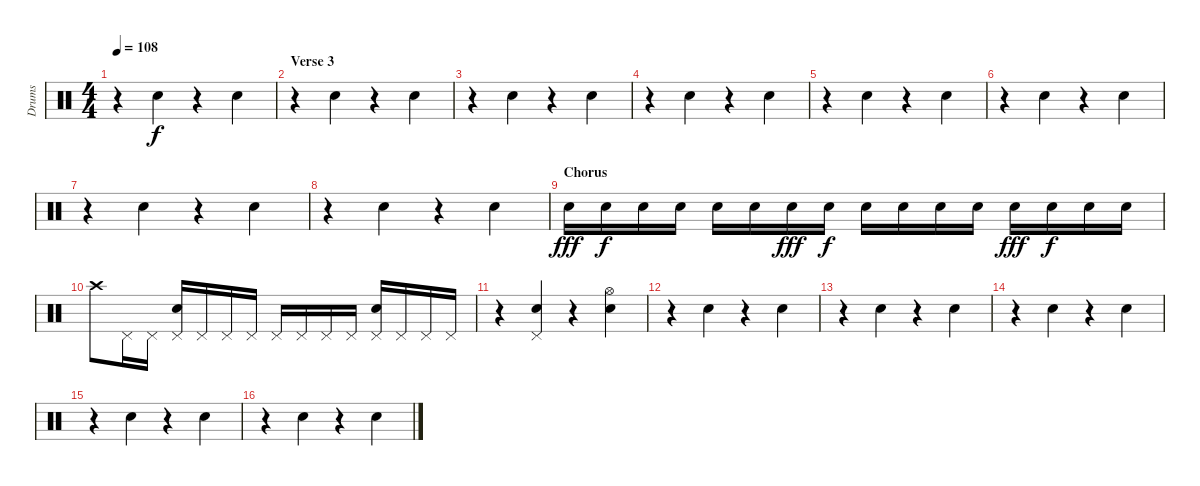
\track ("Drums" "Drums") {instrument percussion}
\staff {score}
\articulation defaults
\ts (4 4)
\tempo 108
\clef neutral
\ks c
r.4{dy f} "Snare (hit) 2".4 r.4 "Snare (hit) 2".4 |
\section ("" "Verse 3")
r.4 "Snare (hit) 2".4 r.4 "Snare (hit) 2".4 |
r.4 "Snare (hit) 2".4 r.4 "Snare (hit) 2".4 |
r.4 "Snare (hit) 2".4 r.4 "Snare (hit) 2".4 |
r.4 "Snare (hit) 2".4 r.4 "Snare (hit) 2".4 |
r.4 "Snare (hit) 2".4 r.4 "Snare (hit) 2".4 |
r.4 "Snare (hit) 2".4 r.4 "Snare (hit) 2".4 |
r.4 "Snare (hit) 2".4 r.4 "Snare (hit) 2".4 |
\section ("" "Chorus")
"Snare (hit) 2".16{dy fff} "Snare (hit) 2".16{dy f} "Snare (hit) 2".16 "Snare (hit) 2".16 "Snare (hit) 2".16 "Snare (hit) 2".16 "Snare (hit) 2".16{dy fff} "Snare (hit) 2".16{dy f} "Snare (hit) 2".16 "Snare (hit) 2".16 "Snare (hit) 2".16 "Snare (hit) 2".16 "Snare (hit) 2".16{dy fff} "Snare (hit) 2".16{dy f} "Snare (hit) 2".16 "Snare (hit) 2".16 |
"Crash high (hit)".8 "Pedal Hi-Hat (hit)".16 "Pedal Hi-Hat (hit)".16 ("Pedal Hi-Hat (hit)" "Snare (hit) 2").16 "Pedal Hi-Hat (hit)".16 "Pedal Hi-Hat (hit)".16 "Pedal Hi-Hat (hit)".16 "Pedal Hi-Hat (hit)".16 "Pedal Hi-Hat (hit)".16 "Pedal Hi-Hat (hit)".16 "Pedal Hi-Hat (hit)".16 ("Pedal Hi-Hat (hit)" "Snare (hit) 2").16 "Pedal Hi-Hat (hit)".16 "Pedal Hi-Hat (hit)".16 "Pedal Hi-Hat (hit)".16 |
r.4 ("Pedal Hi-Hat (hit)" "Snare (hit) 2").4 r.4 ("Hi-Hat (open)" "Snare (hit) 2").4 |
r.4 "Snare (hit) 2".4 r.4 "Snare (hit) 2".4 |
r.4 "Snare (hit) 2".4 r.4 "Snare (hit) 2".4 |
r.4 "Snare (hit) 2".4 r.4 "Snare (hit) 2".4 |
r.4 "Snare (hit) 2".4 r.4 "Snare (hit) 2".4 |
r.4 "Snare (hit) 2".4 r.4 "Snare (hit) 2".4
